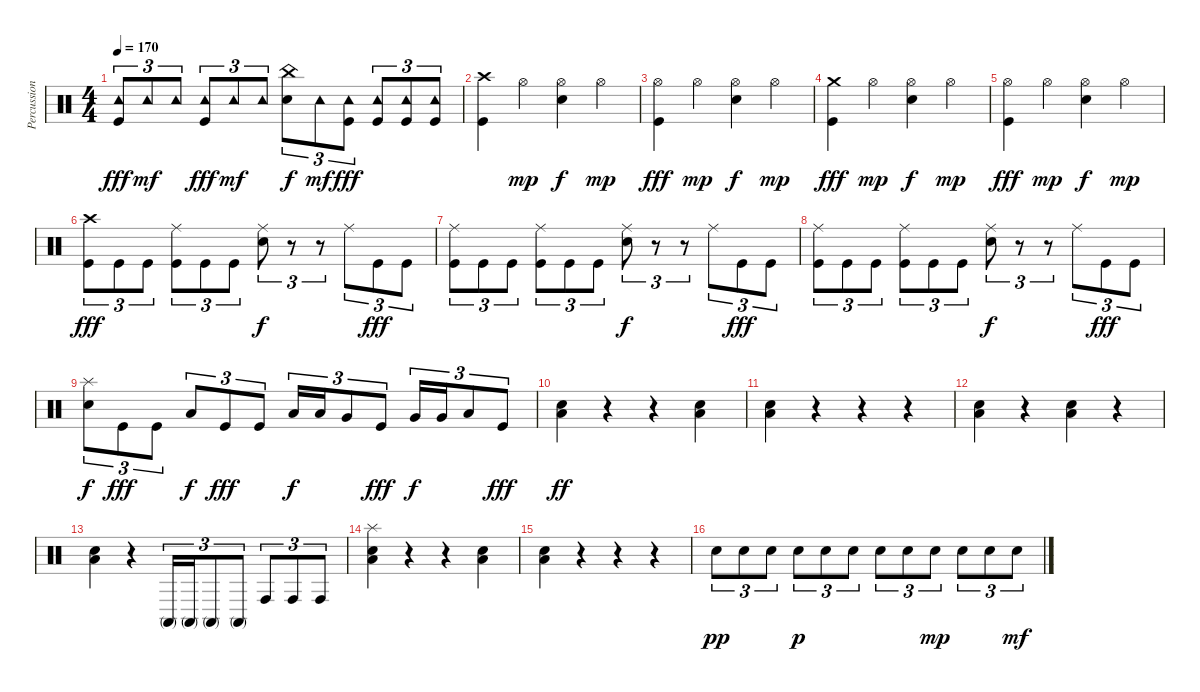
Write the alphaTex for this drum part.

\track ("Percussion" "Percussion") {instrument percussion}
\staff {score}
\articulation defaults
\ts (4 4)
\tempo 170
\clef neutral
\ks c
("Tambourine (hit)" "Kick (hit)").8{tu (3 2) dy fff} "Tambourine (hit)".8{tu (3 2) dy mf} "Tambourine (hit)".8{tu (3 2)} ("Tambourine (hit)" "Kick (hit)").8{tu (3 2) dy fff} "Tambourine (hit)".8{tu (3 2) dy mf} "Tambourine (hit)".8{tu (3 2)} ("China (hit)" "Electric Snare (hit)").8{tu (3 2) dy f} "Tambourine (hit)".8{tu (3 2) dy mf} ("Tambourine (hit)" "Kick (hit)").8{tu (3 2) dy fff} ("Tambourine (hit)" "Kick (hit)").8{tu (3 2)} ("Tambourine (hit)" "Kick (hit)").8{tu (3 2)} ("Tambourine (hit)" "Kick (hit)").8{tu (3 2)} |
("Crash high (hit)" "Kick (hit)").4 "Hi-Hat (open)".4{dy mp} ("Hi-Hat (open)" "Electric Snare (hit)").4{dy f} "Hi-Hat (open)".4{dy mp} |
("Hi-Hat (open)" "Kick (hit)").4{dy fff} "Hi-Hat (open)".4{dy mp} ("Hi-Hat (open)" "Electric Snare (hit)").4{dy f} "Hi-Hat (open)".4{dy mp} |
("Crash medium (hit)" "Kick (hit)").4{dy fff} "Hi-Hat (open)".4{dy mp} ("Hi-Hat (open)" "Electric Snare (hit)").4{dy f} "Hi-Hat (open)".4{dy mp} |
("Hi-Hat (open)" "Kick (hit)").4{dy fff} "Hi-Hat (open)".4{dy mp} ("Hi-Hat (open)" "Electric Snare (hit)").4{dy f} "Hi-Hat (open)".4{dy mp} |
("Crash high (hit)" "Kick (hit)").8{tu (3 2) dy fff} "Kick (hit)".8{tu (3 2)} "Kick (hit)".8{tu (3 2)} ("Ride (middle)" "Kick (hit)").8{tu (3 2)} "Kick (hit)".8{tu (3 2)} "Kick (hit)".8{tu (3 2)} ("Ride (middle)" "Electric Snare (hit)").8{tu (3 2) dy f} r.8{tu (3 2)} r.8{tu (3 2)} "Ride (middle)".8{tu (3 2)} "Kick (hit)".8{tu (3 2) dy fff} "Kick (hit)".8{tu (3 2)} |
("Ride (middle)" "Kick (hit)").8{tu (3 2)} "Kick (hit)".8{tu (3 2)} "Kick (hit)".8{tu (3 2)} ("Ride (middle)" "Kick (hit)").8{tu (3 2)} "Kick (hit)".8{tu (3 2)} "Kick (hit)".8{tu (3 2)} ("Ride (middle)" "Electric Snare (hit)").8{tu (3 2) dy f} r.8{tu (3 2)} r.8{tu (3 2)} "Ride (middle)".8{tu (3 2)} "Kick (hit)".8{tu (3 2) dy fff} "Kick (hit)".8{tu (3 2)} |
("Ride (middle)" "Kick (hit)").8{tu (3 2)} "Kick (hit)".8{tu (3 2)} "Kick (hit)".8{tu (3 2)} ("Ride (middle)" "Kick (hit)").8{tu (3 2)} "Kick (hit)".8{tu (3 2)} "Kick (hit)".8{tu (3 2)} ("Ride (middle)" "Electric Snare (hit)").8{tu (3 2) dy f} r.8{tu (3 2)} r.8{tu (3 2)} "Ride (middle)".8{tu (3 2)} "Kick (hit)".8{tu (3 2) dy fff} "Kick (hit)".8{tu (3 2)} |
("Splash (hit)" "Electric Snare (hit)").8{tu (3 2) dy f} "Kick (hit)".8{tu (3 2) dy fff} "Kick (hit)".8{tu (3 2)} "Low Floor Tom (hit)".8{tu (3 2) dy f} "Kick (hit)".8{tu (3 2) dy fff} "Kick (hit)".8{tu (3 2)} "Low Tom (hit)".16{tu (3 2) dy f} "Low Tom (hit)".16{tu (3 2)} "Very Low Tom (hit)".8{tu (3 2)} "Kick (hit)".8{tu (3 2) dy fff} "Very Low Tom (hit)".16{tu (3 2) dy f} "Very Low Tom (hit)".16{tu (3 2)} "Low Floor Tom (hit)".8{tu (3 2)} "Kick (hit)".8{tu (3 2) dy fff} |
("Electric Snare (hit)" "Low Floor Tom (hit)").4{dy ff} r.4 r.4 ("Electric Snare (hit)" "Low Floor Tom (hit)").4 |
("Low Floor Tom (hit)" "Electric Snare (hit)").4 r.4 r.4 r.4 |
("Electric Snare (hit)" "Low Floor Tom (hit)").4 r.4 ("Electric Snare (hit)" "Low Floor Tom (hit)").4 r.4 |
("Low Floor Tom (hit)" "Electric Snare (hit)").4 r.4 "Conga high (mute)".16{tu (3 2)} "Conga high (mute)".16{tu (3 2)} "Conga high (mute)".8{tu (3 2)} "Conga high (mute)".8{tu (3 2)} "Conga high (hit)".8{tu (3 2)} "Conga high (hit)".8{tu (3 2)} "Conga high (hit)".8{tu (3 2)} |
("Splash (hit)" "Electric Snare (hit)" "Low Floor Tom (hit)").4 r.4 r.4 ("Electric Snare (hit)" "Low Floor Tom (hit)").4 |
("Low Floor Tom (hit)" "Electric Snare (hit)").4 r.4 r.4 r.4 |
"Electric Snare (hit)".8{tu (3 2) dy pp} "Electric Snare (hit)".8{tu (3 2)} "Electric Snare (hit)".8{tu (3 2)} "Electric Snare (hit)".8{tu (3 2) dy p} "Electric Snare (hit)".8{tu (3 2)} "Electric Snare (hit)".8{tu (3 2)} "Electric Snare (hit)".8{tu (3 2)} "Electric Snare (hit)".8{tu (3 2)} "Electric Snare (hit)".8{tu (3 2) dy mp} "Electric Snare (hit)".8{tu (3 2)} "Electric Snare (hit)".8{tu (3 2)} "Electric Snare (hit)".8{tu (3 2) dy mf}
